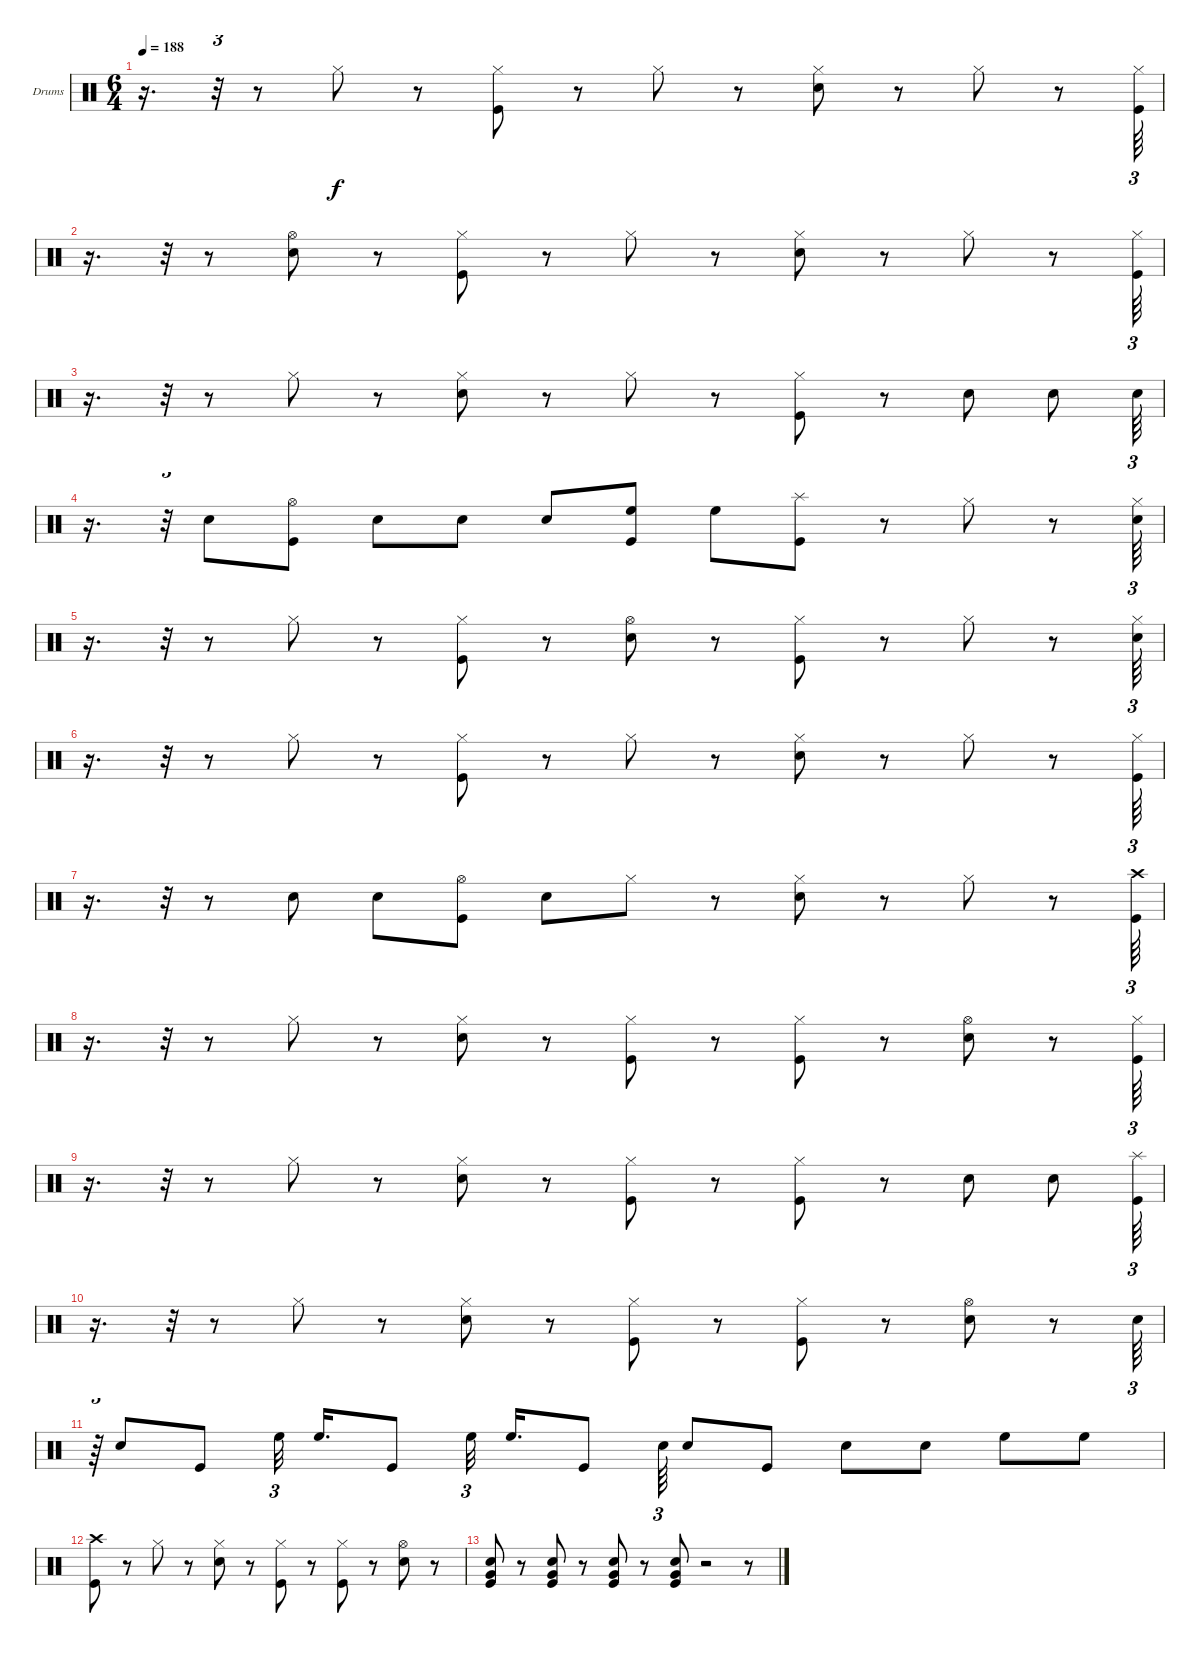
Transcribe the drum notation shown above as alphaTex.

\bracketExtendMode groupsimilarinstruments
\firstSystemTrackNameOrientation horizontal
\otherSystemsTrackNameOrientation horizontal
\track ("Drumkit" "Drums") {instrument percussion}
\staff {score}
\articulation defaults
\ts (6 4)
\tempo 188
\clef neutral
\ks c
r.16{d dy f} r.32{tu (3 2)} r.8 "Hi-Hat (closed)".8 r.8 ("Hi-Hat (closed)" "Kick (hit)").8 r.8 "Hi-Hat (closed)".8 r.8 ("Hi-Hat (closed)" "Snare (hit) 2").8 r.8 "Hi-Hat (closed)".8 r.8 ("Hi-Hat (closed)" "Kick (hit)").64{tu (3 2)} |
r.16{d} r.32{tu (3 2)} r.8 ("Snare (hit) 2" "Hi-Hat (open)").8 r.8 ("Hi-Hat (closed)" "Kick (hit)").8 r.8 "Hi-Hat (closed)".8 r.8 ("Hi-Hat (closed)" "Snare (hit) 2").8 r.8 "Hi-Hat (closed)".8 r.8 ("Hi-Hat (closed)" "Kick (hit)").64{tu (3 2)} |
r.16{d} r.32{tu (3 2)} r.8 "Hi-Hat (closed)".8 r.8 ("Snare (hit) 2" "Hi-Hat (closed)").8 r.8 "Hi-Hat (closed)".8 r.8 ("Kick (hit)" "Hi-Hat (closed)").8 r.8 "Snare (hit) 2".8 "Snare (hit) 2".8 "Snare (hit) 2".64{tu (3 2)} |
r.16{d} r.32{tu (3 2)} "Snare (hit) 2".8 ("Hi-Hat (open)" "Kick (hit)").8 "Snare (hit) 2".8 "Snare (hit) 2".8 "Snare (hit) 2".8 ("High Floor Tom (hit)" "Kick (hit)").8 "High Floor Tom (hit)".8 ("Kick (hit)" "Splash (hit)").8 r.8 "Hi-Hat (closed)".8 r.8 ("Snare (hit) 2" "Hi-Hat (closed)").64{tu (3 2)} |
r.16{d} r.32{tu (3 2)} r.8 "Hi-Hat (closed)".8 r.8 ("Kick (hit)" "Hi-Hat (closed)").8 r.8 ("Snare (hit) 2" "Hi-Hat (open)").8 r.8 ("Kick (hit)" "Hi-Hat (closed)").8 r.8 "Hi-Hat (closed)".8 r.8 ("Snare (hit) 2" "Hi-Hat (closed)").64{tu (3 2)} |
r.16{d} r.32{tu (3 2)} r.8 "Hi-Hat (closed)".8 r.8 ("Kick (hit)" "Hi-Hat (closed)").8 r.8 "Hi-Hat (closed)".8 r.8 ("Snare (hit) 2" "Hi-Hat (closed)").8 r.8 "Hi-Hat (closed)".8 r.8 ("Hi-Hat (closed)" "Kick (hit)").64{tu (3 2)} |
r.16{d} r.32{tu (3 2)} r.8 "Snare (hit) 2".8 "Snare (hit) 2".8 ("Hi-Hat (open)" "Kick (hit)").8 "Snare (hit) 2".8 "Hi-Hat (closed)".8 r.8 ("Hi-Hat (closed)" "Snare (hit) 2").8 r.8 "Hi-Hat (closed)".8 r.8 ("Crash high (hit)" "Kick (hit)").64{tu (3 2)} |
r.16{d} r.32{tu (3 2)} r.8 "Hi-Hat (closed)".8 r.8 ("Snare (hit) 2" "Hi-Hat (closed)").8 r.8 ("Hi-Hat (closed)" "Kick (hit)").8 r.8 ("Kick (hit)" "Hi-Hat (closed)").8 r.8 ("Snare (hit) 2" "Hi-Hat (open)").8 r.8 ("Kick (hit)" "Hi-Hat (closed)").64{tu (3 2)} |
r.16{d} r.32{tu (3 2)} r.8 "Hi-Hat (closed)".8 r.8 ("Snare (hit) 2" "Hi-Hat (closed)").8 r.8 ("Kick (hit)" "Hi-Hat (closed)").8 r.8 ("Kick (hit)" "Hi-Hat (closed)").8 r.8 "Snare (hit) 2".8 "Snare (hit) 2".8 ("Kick (hit)" "Splash (hit)").64{tu (3 2)} |
r.16{d} r.32{tu (3 2)} r.8 "Hi-Hat (closed)".8 r.8 ("Hi-Hat (closed)" "Snare (hit) 2").8 r.8 ("Hi-Hat (closed)" "Kick (hit)").8 r.8 ("Hi-Hat (closed)" "Kick (hit)").8 r.8 ("Snare (hit) 2" "Hi-Hat (open)").8 r.8 "Snare (hit) 2".64{tu (3 2)} |
r.64{tu (3 2)} "Snare (hit) 2".8 "Kick (hit)".8 "High Floor Tom (hit)".32{tu (3 2)} "High Floor Tom (hit)".16{d} "Kick (hit)".8 "High Floor Tom (hit)".32{tu (3 2)} "High Floor Tom (hit)".16{d} "Kick (hit)".8 "Snare (hit) 2".64{tu (3 2)} "Snare (hit) 2".8 "Kick (hit)".8 "Snare (hit) 2".8 "Snare (hit) 2".8 "High Floor Tom (hit)".8 "High Floor Tom (hit)".8 |
("Kick (hit)" "Crash high (hit)").8 r.8 "Hi-Hat (closed)".8 r.8 ("Hi-Hat (closed)" "Snare (hit) 2").8 r.8 ("Hi-Hat (closed)" "Kick (hit)").8 r.8 ("Hi-Hat (closed)" "Kick (hit)").8 r.8 ("Snare (hit) 2" "Hi-Hat (open)").8 r.8 |
("Kick (hit)" "Snare (hit) 2" "Very Low Tom (hit)").8 r.8 ("Kick (hit)" "Very Low Tom (hit)" "Snare (hit) 2").8 r.8 ("Kick (hit)" "Very Low Tom (hit)" "Snare (hit) 2").8 r.8 ("Kick (hit)" "Snare (hit) 2" "Very Low Tom (hit)").8 r.2 r.8
